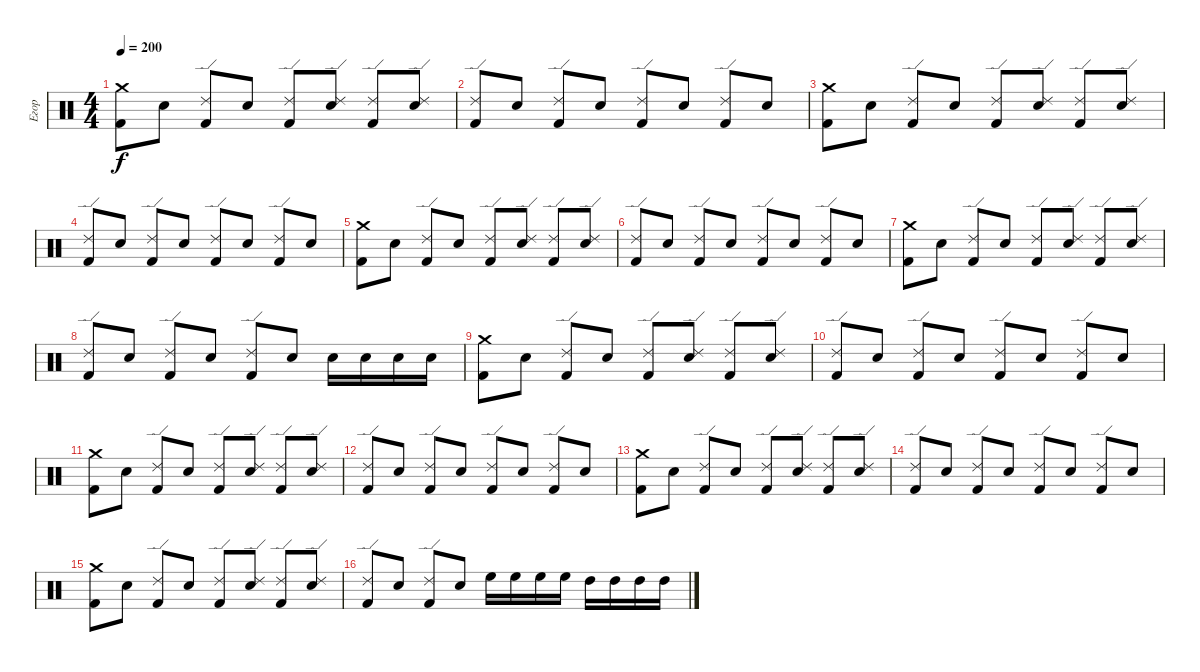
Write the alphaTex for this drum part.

\track ("Егор" "Егор") {instrument percussion}
\staff {score}
\articulation defaults
\ts (4 4)
\tempo 200
\clef neutral
\ks c
("Crash medium (hit)" "Kick (hit) 2").8{dy f} "Snare (hit) 2".8 ("Ride (edge) 2" "Kick (hit) 2").8 "Snare (hit) 2".8 ("Ride (edge) 2" "Kick (hit) 2").8 ("Ride (edge) 2" "Snare (hit) 2").8 ("Ride (edge) 2" "Kick (hit) 2").8 ("Ride (edge) 2" "Snare (hit) 2").8 |
("Ride (edge) 2" "Kick (hit) 2").8 "Snare (hit) 2".8 ("Ride (edge) 2" "Kick (hit) 2").8 "Snare (hit) 2".8 ("Ride (edge) 2" "Kick (hit) 2").8 "Snare (hit) 2".8 ("Ride (edge) 2" "Kick (hit) 2").8 "Snare (hit) 2".8 |
("Crash medium (hit)" "Kick (hit) 2").8 "Snare (hit) 2".8 ("Ride (edge) 2" "Kick (hit) 2").8 "Snare (hit) 2".8 ("Ride (edge) 2" "Kick (hit) 2").8 ("Ride (edge) 2" "Snare (hit) 2").8 ("Ride (edge) 2" "Kick (hit) 2").8 ("Ride (edge) 2" "Snare (hit) 2").8 |
("Ride (edge) 2" "Kick (hit) 2").8 "Snare (hit) 2".8 ("Ride (edge) 2" "Kick (hit) 2").8 "Snare (hit) 2".8 ("Ride (edge) 2" "Kick (hit) 2").8 "Snare (hit) 2".8 ("Ride (edge) 2" "Kick (hit) 2").8 "Snare (hit) 2".8 |
("Crash medium (hit)" "Kick (hit) 2").8 "Snare (hit) 2".8 ("Ride (edge) 2" "Kick (hit) 2").8 "Snare (hit) 2".8 ("Ride (edge) 2" "Kick (hit) 2").8 ("Ride (edge) 2" "Snare (hit) 2").8 ("Ride (edge) 2" "Kick (hit) 2").8 ("Ride (edge) 2" "Snare (hit) 2").8 |
("Ride (edge) 2" "Kick (hit) 2").8 "Snare (hit) 2".8 ("Ride (edge) 2" "Kick (hit) 2").8 "Snare (hit) 2".8 ("Ride (edge) 2" "Kick (hit) 2").8 "Snare (hit) 2".8 ("Ride (edge) 2" "Kick (hit) 2").8 "Snare (hit) 2".8 |
("Crash medium (hit)" "Kick (hit) 2").8 "Snare (hit) 2".8 ("Ride (edge) 2" "Kick (hit) 2").8 "Snare (hit) 2".8 ("Ride (edge) 2" "Kick (hit) 2").8 ("Ride (edge) 2" "Snare (hit) 2").8 ("Ride (edge) 2" "Kick (hit) 2").8 ("Ride (edge) 2" "Snare (hit) 2").8 |
("Ride (edge) 2" "Kick (hit) 2").8 "Snare (hit) 2".8 ("Ride (edge) 2" "Kick (hit) 2").8 "Snare (hit) 2".8 ("Ride (edge) 2" "Kick (hit) 2").8 "Snare (hit) 2".8 "Snare (hit) 2".16 "Snare (hit) 2".16 "Snare (hit) 2".16 "Snare (hit) 2".16 |
("Crash medium (hit)" "Kick (hit) 2").8 "Snare (hit) 2".8 ("Ride (edge) 2" "Kick (hit) 2").8 "Snare (hit) 2".8 ("Ride (edge) 2" "Kick (hit) 2").8 ("Ride (edge) 2" "Snare (hit) 2").8 ("Ride (edge) 2" "Kick (hit) 2").8 ("Ride (edge) 2" "Snare (hit) 2").8 |
("Ride (edge) 2" "Kick (hit) 2").8 "Snare (hit) 2".8 ("Ride (edge) 2" "Kick (hit) 2").8 "Snare (hit) 2".8 ("Ride (edge) 2" "Kick (hit) 2").8 "Snare (hit) 2".8 ("Ride (edge) 2" "Kick (hit) 2").8 "Snare (hit) 2".8 |
("Crash medium (hit)" "Kick (hit) 2").8 "Snare (hit) 2".8 ("Ride (edge) 2" "Kick (hit) 2").8 "Snare (hit) 2".8 ("Ride (edge) 2" "Kick (hit) 2").8 ("Ride (edge) 2" "Snare (hit) 2").8 ("Ride (edge) 2" "Kick (hit) 2").8 ("Ride (edge) 2" "Snare (hit) 2").8 |
("Ride (edge) 2" "Kick (hit) 2").8 "Snare (hit) 2".8 ("Ride (edge) 2" "Kick (hit) 2").8 "Snare (hit) 2".8 ("Ride (edge) 2" "Kick (hit) 2").8 "Snare (hit) 2".8 ("Ride (edge) 2" "Kick (hit) 2").8 "Snare (hit) 2".8 |
("Crash medium (hit)" "Kick (hit) 2").8 "Snare (hit) 2".8 ("Ride (edge) 2" "Kick (hit) 2").8 "Snare (hit) 2".8 ("Ride (edge) 2" "Kick (hit) 2").8 ("Ride (edge) 2" "Snare (hit) 2").8 ("Ride (edge) 2" "Kick (hit) 2").8 ("Ride (edge) 2" "Snare (hit) 2").8 |
("Ride (edge) 2" "Kick (hit) 2").8 "Snare (hit) 2".8 ("Ride (edge) 2" "Kick (hit) 2").8 "Snare (hit) 2".8 ("Ride (edge) 2" "Kick (hit) 2").8 "Snare (hit) 2".8 ("Ride (edge) 2" "Kick (hit) 2").8 "Snare (hit) 2".8 |
("Crash medium (hit)" "Kick (hit) 2").8 "Snare (hit) 2".8 ("Ride (edge) 2" "Kick (hit) 2").8 "Snare (hit) 2".8 ("Ride (edge) 2" "Kick (hit) 2").8 ("Ride (edge) 2" "Snare (hit) 2").8 ("Ride (edge) 2" "Kick (hit) 2").8 ("Ride (edge) 2" "Snare (hit) 2").8 |
("Ride (edge) 2" "Kick (hit) 2").8 "Snare (hit) 2".8 ("Ride (edge) 2" "Kick (hit) 2").8 "Snare (hit) 2".8 "High Floor Tom (hit)".16 "High Floor Tom (hit)".16 "High Floor Tom (hit)".16 "High Floor Tom (hit)".16 "High Tom (hit)".16 "High Tom (hit)".16 "High Tom (hit)".16 "High Tom (hit)".16
